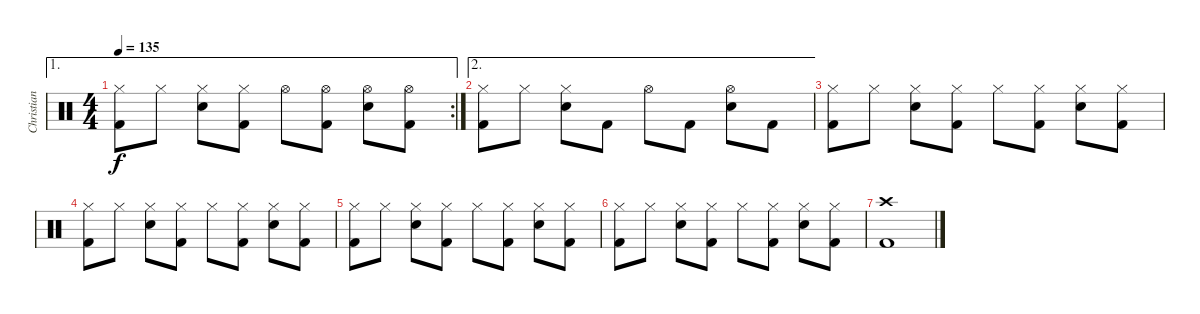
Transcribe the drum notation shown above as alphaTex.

\track ("Christian" "Christian") {instrument percussion}
\staff {score}
\articulation defaults
\ae 1
\rc 2
\ts (4 4)
\tempo 135
\clef neutral
\ks c
("Hi-Hat (closed)" "Kick (hit) 2").8{dy f} "Hi-Hat (closed)".8 ("Hi-Hat (closed)" "Snare (hit) 2").8 ("Hi-Hat (closed)" "Kick (hit) 2").8 "Hi-Hat (open)".8 ("Hi-Hat (open)" "Kick (hit) 2").8 ("Hi-Hat (open)" "Snare (hit) 2").8 ("Hi-Hat (open)" "Kick (hit) 2").8 |
\ae 2
("Hi-Hat (closed)" "Kick (hit) 2").8 "Hi-Hat (closed)".8 ("Hi-Hat (closed)" "Snare (hit) 2").8 "Kick (hit) 2".8 "Hi-Hat (open)".8 "Kick (hit) 2".8 ("Hi-Hat (open)" "Snare (hit) 2").8 "Kick (hit) 2".8 |
("Hi-Hat (closed)" "Kick (hit) 2").8 "Hi-Hat (closed)".8 ("Hi-Hat (closed)" "Snare (hit) 2").8 ("Hi-Hat (closed)" "Kick (hit) 2").8 "Hi-Hat (closed)".8 ("Hi-Hat (closed)" "Kick (hit) 2").8 ("Hi-Hat (closed)" "Snare (hit) 2").8 ("Hi-Hat (closed)" "Kick (hit) 2").8 |
("Hi-Hat (closed)" "Kick (hit) 2").8 "Hi-Hat (closed)".8 ("Hi-Hat (closed)" "Snare (hit) 2").8 ("Hi-Hat (closed)" "Kick (hit) 2").8 "Hi-Hat (closed)".8 ("Hi-Hat (closed)" "Kick (hit) 2").8 ("Hi-Hat (closed)" "Snare (hit) 2").8 ("Hi-Hat (closed)" "Kick (hit) 2").8 |
("Hi-Hat (closed)" "Kick (hit) 2").8 "Hi-Hat (closed)".8 ("Hi-Hat (closed)" "Snare (hit) 2").8 ("Hi-Hat (closed)" "Kick (hit) 2").8 "Hi-Hat (closed)".8 ("Hi-Hat (closed)" "Kick (hit) 2").8 ("Hi-Hat (closed)" "Snare (hit) 2").8 ("Hi-Hat (closed)" "Kick (hit) 2").8 |
("Hi-Hat (closed)" "Kick (hit) 2").8 "Hi-Hat (closed)".8 ("Hi-Hat (closed)" "Snare (hit) 2").8 ("Hi-Hat (closed)" "Kick (hit) 2").8 "Hi-Hat (closed)".8 ("Hi-Hat (closed)" "Kick (hit) 2").8 ("Hi-Hat (closed)" "Snare (hit) 2").8 ("Hi-Hat (closed)" "Kick (hit) 2").8 |
("Crash high (hit)" "Kick (hit) 2").1
